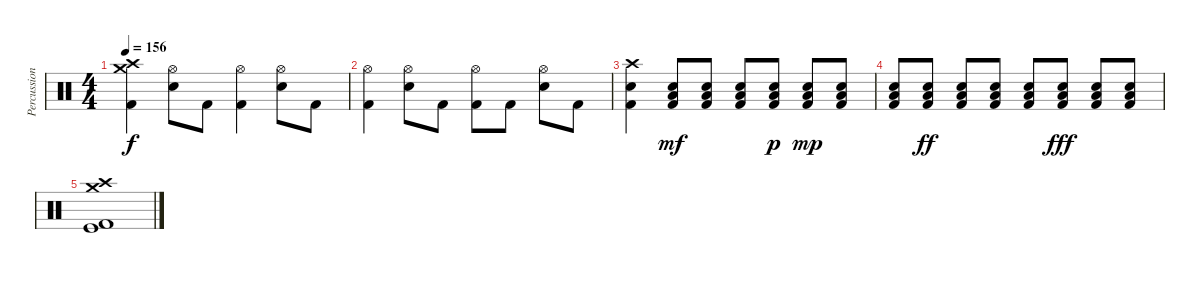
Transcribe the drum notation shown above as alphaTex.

\track ("Percussion" "Percussion") {instrument percussion}
\staff {score}
\articulation defaults
\ts (4 4)
\tempo 156
\clef neutral
\ks c
("Crash medium (hit)" "Crash high (hit)" "Kick (hit) 2").4{dy f} ("Hi-Hat (open)" "Electric Snare (hit)").8 "Kick (hit) 2".8 ("Hi-Hat (open)" "Kick (hit) 2").4 ("Hi-Hat (open)" "Electric Snare (hit)").8 "Kick (hit) 2".8 |
("Hi-Hat (open)" "Kick (hit) 2").4 ("Hi-Hat (open)" "Electric Snare (hit)").8 "Kick (hit) 2".8 ("Hi-Hat (open)" "Kick (hit) 2").8 "Kick (hit) 2".8 ("Hi-Hat (open)" "Electric Snare (hit)").8 "Kick (hit) 2".8 |
("Crash high (hit)" "Kick (hit) 2" "Electric Snare (hit)").4 ("Kick (hit) 2" "Electric Snare (hit)" "Low Floor Tom (hit)").8{dy mf} ("Kick (hit) 2" "Electric Snare (hit)" "Low Floor Tom (hit)").8 ("Kick (hit) 2" "Electric Snare (hit)" "Low Floor Tom (hit)").8 ("Kick (hit) 2" "Electric Snare (hit)" "Low Floor Tom (hit)").8{dy p} ("Kick (hit) 2" "Electric Snare (hit)" "Low Floor Tom (hit)").8{dy mp} ("Kick (hit) 2" "Electric Snare (hit)" "Low Floor Tom (hit)").8 |
("Kick (hit) 2" "Electric Snare (hit)" "Low Floor Tom (hit)").8 ("Kick (hit) 2" "Electric Snare (hit)" "Low Floor Tom (hit)").8{dy ff} ("Kick (hit) 2" "Electric Snare (hit)" "Low Floor Tom (hit)").8 ("Kick (hit) 2" "Electric Snare (hit)" "Low Floor Tom (hit)").8 ("Kick (hit) 2" "Electric Snare (hit)" "Low Floor Tom (hit)").8 ("Kick (hit) 2" "Electric Snare (hit)" "Low Floor Tom (hit)").8{dy fff} ("Kick (hit) 2" "Electric Snare (hit)" "Low Floor Tom (hit)").8 ("Kick (hit) 2" "Electric Snare (hit)" "Low Floor Tom (hit)").8 |
("Crash medium (hit)" "Crash high (hit)" "Kick (hit) 2" "Kick (hit)").1
